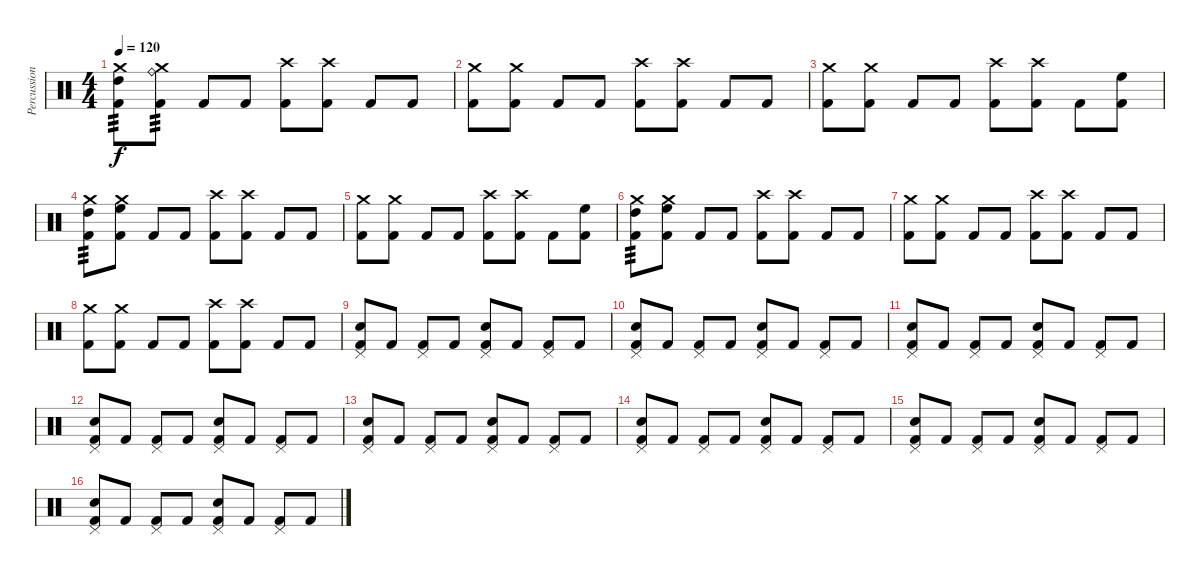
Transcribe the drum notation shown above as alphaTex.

\track ("Percussions" "Percussion") {instrument percussion}
\staff {score}
\articulation defaults
\ts (4 4)
\tempo 120
\clef neutral
\ks c
("High Tom (hit)" "Crash medium (hit)" "Kick (hit) 2").8{tp 3 dy f} ("Ride (bell)" "Crash medium (hit)" "Kick (hit) 2").8{tp 3} "Kick (hit) 2".8 "Kick (hit) 2".8 ("Crash high (hit)" "Kick (hit) 2").8 ("Crash high (hit)" "Kick (hit) 2").8 "Kick (hit) 2".8 "Kick (hit) 2".8 |
("Crash medium (hit)" "Kick (hit) 2").8 ("Crash medium (hit)" "Kick (hit) 2").8 "Kick (hit) 2".8 "Kick (hit) 2".8 ("Crash high (hit)" "Kick (hit) 2").8 ("Crash high (hit)" "Kick (hit) 2").8 "Kick (hit) 2".8 "Kick (hit) 2".8 |
("Crash medium (hit)" "Kick (hit) 2").8 ("Crash medium (hit)" "Kick (hit) 2").8 "Kick (hit) 2".8 "Kick (hit) 2".8 ("Crash high (hit)" "Kick (hit) 2").8 ("Crash high (hit)" "Kick (hit) 2").8 "Kick (hit) 2".8 ("High Floor Tom (hit)" "Kick (hit) 2").8 |
("High Tom (hit)" "Crash medium (hit)" "Kick (hit) 2").8{tp 3} ("High Floor Tom (hit)" "Crash medium (hit)" "Kick (hit) 2").8 "Kick (hit) 2".8 "Kick (hit) 2".8 ("Crash high (hit)" "Kick (hit) 2").8 ("Crash high (hit)" "Kick (hit) 2").8 "Kick (hit) 2".8 "Kick (hit) 2".8 |
("Crash medium (hit)" "Kick (hit) 2").8 ("Crash medium (hit)" "Kick (hit) 2").8 "Kick (hit) 2".8 "Kick (hit) 2".8 ("Crash high (hit)" "Kick (hit) 2").8 ("Crash high (hit)" "Kick (hit) 2").8 "Kick (hit) 2".8 ("High Floor Tom (hit)" "Kick (hit) 2").8 |
("High Tom (hit)" "Crash medium (hit)" "Kick (hit) 2").8{tp 3} ("High Floor Tom (hit)" "Crash medium (hit)" "Kick (hit) 2").8 "Kick (hit) 2".8 "Kick (hit) 2".8 ("Crash high (hit)" "Kick (hit) 2").8 ("Crash high (hit)" "Kick (hit) 2").8 "Kick (hit) 2".8 "Kick (hit) 2".8 |
("Crash medium (hit)" "Kick (hit) 2").8 ("Crash medium (hit)" "Kick (hit) 2").8 "Kick (hit) 2".8 "Kick (hit) 2".8 ("Crash high (hit)" "Kick (hit) 2").8 ("Crash high (hit)" "Kick (hit) 2").8 "Kick (hit) 2".8 "Kick (hit) 2".8 |
("Crash medium (hit)" "Kick (hit) 2").8 ("Crash medium (hit)" "Kick (hit) 2").8 "Kick (hit) 2".8 "Kick (hit) 2".8 ("Crash high (hit)" "Kick (hit) 2").8 ("Crash high (hit)" "Kick (hit) 2").8 "Kick (hit) 2".8 "Kick (hit) 2".8 |
("Pedal Hi-Hat (hit)" "Snare (hit) 2" "Kick (hit) 2").8 "Kick (hit) 2".8 ("Pedal Hi-Hat (hit)" "Kick (hit) 2").8 "Kick (hit) 2".8 ("Pedal Hi-Hat (hit)" "Snare (hit) 2" "Kick (hit) 2").8 "Kick (hit) 2".8 ("Pedal Hi-Hat (hit)" "Kick (hit) 2").8 "Kick (hit) 2".8 |
("Pedal Hi-Hat (hit)" "Snare (hit) 2" "Kick (hit) 2").8 "Kick (hit) 2".8 ("Pedal Hi-Hat (hit)" "Kick (hit) 2").8 "Kick (hit) 2".8 ("Pedal Hi-Hat (hit)" "Snare (hit) 2" "Kick (hit) 2").8 "Kick (hit) 2".8 ("Pedal Hi-Hat (hit)" "Kick (hit) 2").8 "Kick (hit) 2".8 |
("Pedal Hi-Hat (hit)" "Snare (hit) 2" "Kick (hit) 2").8 "Kick (hit) 2".8 ("Pedal Hi-Hat (hit)" "Kick (hit) 2").8 "Kick (hit) 2".8 ("Pedal Hi-Hat (hit)" "Snare (hit) 2" "Kick (hit) 2").8 "Kick (hit) 2".8 ("Pedal Hi-Hat (hit)" "Kick (hit) 2").8 "Kick (hit) 2".8 |
("Pedal Hi-Hat (hit)" "Snare (hit) 2" "Kick (hit) 2").8 "Kick (hit) 2".8 ("Pedal Hi-Hat (hit)" "Kick (hit) 2").8 "Kick (hit) 2".8 ("Pedal Hi-Hat (hit)" "Snare (hit) 2" "Kick (hit) 2").8 "Kick (hit) 2".8 ("Pedal Hi-Hat (hit)" "Kick (hit) 2").8 "Kick (hit) 2".8 |
("Pedal Hi-Hat (hit)" "Snare (hit) 2" "Kick (hit) 2").8 "Kick (hit) 2".8 ("Pedal Hi-Hat (hit)" "Kick (hit) 2").8 "Kick (hit) 2".8 ("Pedal Hi-Hat (hit)" "Snare (hit) 2" "Kick (hit) 2").8 "Kick (hit) 2".8 ("Pedal Hi-Hat (hit)" "Kick (hit) 2").8 "Kick (hit) 2".8 |
("Pedal Hi-Hat (hit)" "Snare (hit) 2" "Kick (hit) 2").8 "Kick (hit) 2".8 ("Pedal Hi-Hat (hit)" "Kick (hit) 2").8 "Kick (hit) 2".8 ("Pedal Hi-Hat (hit)" "Snare (hit) 2" "Kick (hit) 2").8 "Kick (hit) 2".8 ("Pedal Hi-Hat (hit)" "Kick (hit) 2").8 "Kick (hit) 2".8 |
("Pedal Hi-Hat (hit)" "Snare (hit) 2" "Kick (hit) 2").8 "Kick (hit) 2".8 ("Pedal Hi-Hat (hit)" "Kick (hit) 2").8 "Kick (hit) 2".8 ("Pedal Hi-Hat (hit)" "Snare (hit) 2" "Kick (hit) 2").8 "Kick (hit) 2".8 ("Pedal Hi-Hat (hit)" "Kick (hit) 2").8 "Kick (hit) 2".8 |
("Pedal Hi-Hat (hit)" "Snare (hit) 2" "Kick (hit) 2").8 "Kick (hit) 2".8 ("Pedal Hi-Hat (hit)" "Kick (hit) 2").8 "Kick (hit) 2".8 ("Pedal Hi-Hat (hit)" "Snare (hit) 2" "Kick (hit) 2").8 "Kick (hit) 2".8 ("Pedal Hi-Hat (hit)" "Kick (hit) 2").8 "Kick (hit) 2".8
